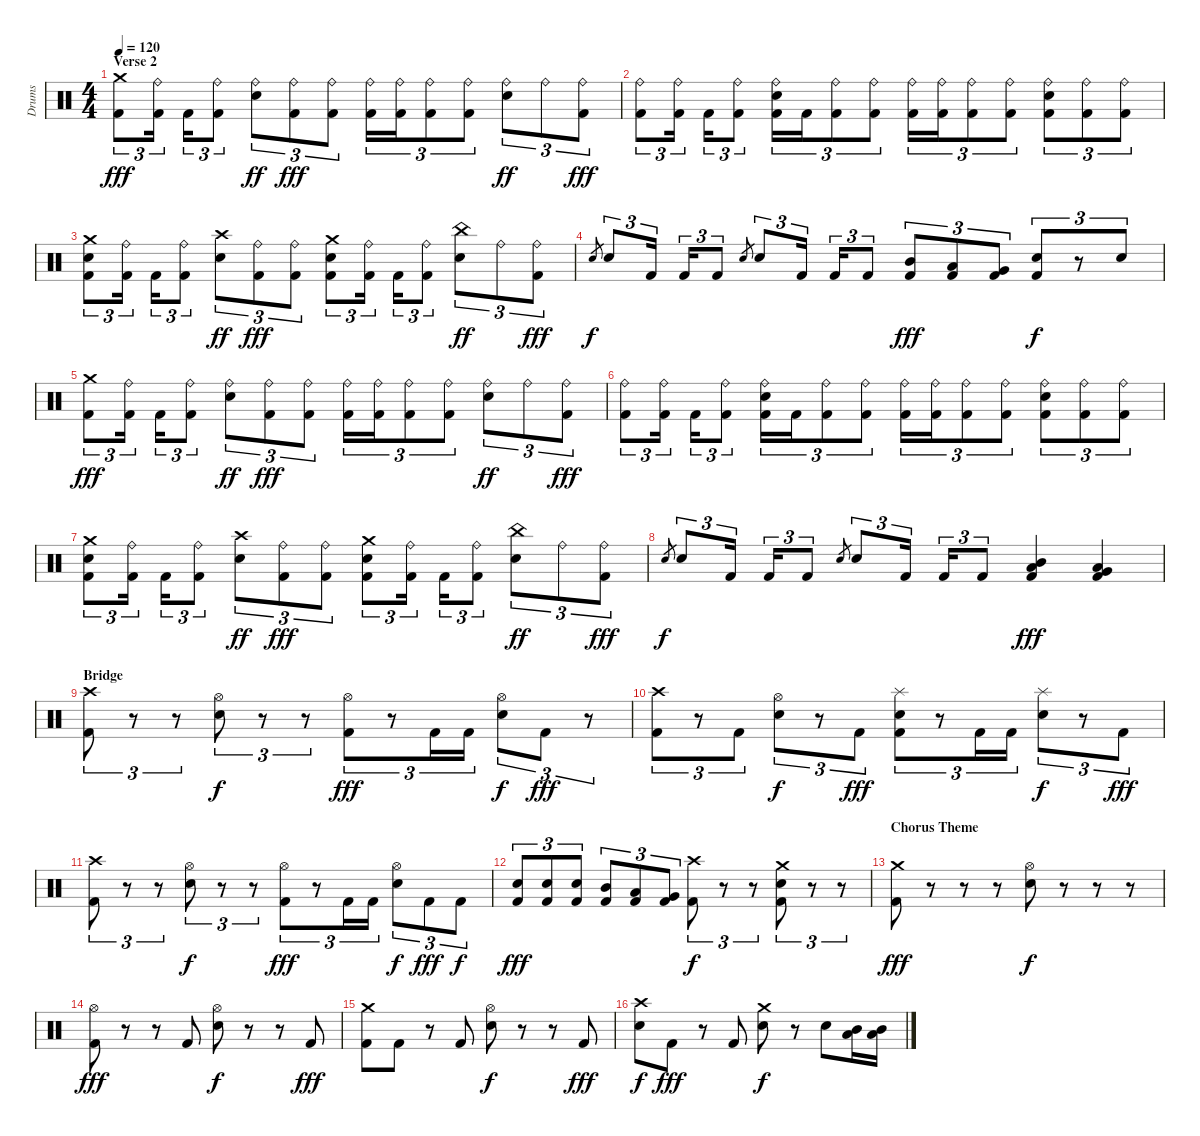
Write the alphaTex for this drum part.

\track ("Drums" "Drums") {instrument percussion}
\staff {score}
\articulation defaults
\ts (4 4)
\section ("" "Verse 2")
\tempo 120
\clef neutral
\ks c
("Crash medium (hit)" "Kick (hit) 2").8{tu (3 2) dy fff} ("Ride (bell)" "Kick (hit) 2").16{tu (3 2)} "Kick (hit) 2".16{tu (3 2)} ("Ride (bell)" "Kick (hit) 2").8{tu (3 2)} ("Ride (bell)" "Snare (hit) 2").8{tu (3 2) dy ff} ("Ride (bell)" "Kick (hit) 2").8{tu (3 2) dy fff} ("Ride (bell)" "Kick (hit) 2").8{tu (3 2)} ("Ride (bell)" "Kick (hit) 2").16{tu (3 2)} ("Ride (bell)" "Kick (hit) 2").16{tu (3 2)} ("Ride (bell)" "Kick (hit) 2").8{tu (3 2)} ("Ride (bell)" "Kick (hit) 2").8{tu (3 2)} ("Ride (bell)" "Snare (hit) 2").8{tu (3 2) dy ff} "Ride (bell)".8{tu (3 2)} ("Ride (bell)" "Kick (hit) 2").8{tu (3 2) dy fff} |
("Ride (bell)" "Kick (hit) 2").8{tu (3 2)} ("Ride (bell)" "Kick (hit) 2").16{tu (3 2)} "Kick (hit) 2".16{tu (3 2)} ("Ride (bell)" "Kick (hit) 2").8{tu (3 2)} ("Ride (bell)" "Snare (hit) 2" "Kick (hit) 2").16{tu (3 2)} "Kick (hit) 2".16{tu (3 2)} ("Ride (bell)" "Kick (hit) 2").8{tu (3 2)} ("Ride (bell)" "Kick (hit) 2").8{tu (3 2)} ("Ride (bell)" "Kick (hit) 2").16{tu (3 2)} ("Ride (bell)" "Kick (hit) 2").16{tu (3 2)} ("Ride (bell)" "Kick (hit) 2").8{tu (3 2)} ("Ride (bell)" "Kick (hit) 2").8{tu (3 2)} ("Ride (bell)" "Snare (hit) 2" "Kick (hit) 2").8{tu (3 2)} ("Ride (bell)" "Kick (hit) 2").8{tu (3 2)} ("Ride (bell)" "Kick (hit) 2").8{tu (3 2)} |
("Crash medium (hit)" "Snare (hit) 2" "Kick (hit) 2").8{tu (3 2)} ("Ride (bell)" "Kick (hit) 2").16{tu (3 2)} "Kick (hit) 2".16{tu (3 2)} ("Ride (bell)" "Kick (hit) 2").8{tu (3 2)} ("Crash high (hit)" "Snare (hit) 2").8{tu (3 2) dy ff} ("Ride (bell)" "Kick (hit) 2").8{tu (3 2) dy fff} ("Ride (bell)" "Kick (hit) 2").8{tu (3 2)} ("Crash medium (hit)" "Snare (hit) 2" "Kick (hit) 2").8{tu (3 2)} ("Ride (bell)" "Kick (hit) 2").16{tu (3 2)} "Kick (hit) 2".16{tu (3 2)} ("Ride (bell)" "Kick (hit) 2").8{tu (3 2)} ("China (hit)" "Snare (hit) 2").8{tu (3 2) dy ff} "Ride (bell)".8{tu (3 2)} ("Ride (bell)" "Kick (hit) 2").8{tu (3 2) dy fff} |
"Snare (hit) 2".8{gr dy f} "Snare (hit) 2".8{tu (3 2)} "Kick (hit) 2".16{tu (3 2)} "Kick (hit) 2".16{tu (3 2)} "Kick (hit) 2".8{tu (3 2)} "Snare (hit) 2".8{gr} "Snare (hit) 2".8{tu (3 2)} "Kick (hit) 2".16{tu (3 2)} "Kick (hit) 2".16{tu (3 2)} "Kick (hit) 2".8{tu (3 2)} ("Mid Tom (hit)" "Kick (hit) 2").8{tu (3 2) dy fff} ("Low Tom (hit)" "Kick (hit) 2").8{tu (3 2)} ("Very Low Tom (hit)" "Kick (hit) 2").8{tu (3 2)} ("Snare (hit) 2" "Kick (hit) 2").8{tu (3 2) dy f} r.8{tu (3 2)} "Snare (hit) 2".8{tu (3 2)} |
("Crash medium (hit)" "Kick (hit) 2").8{tu (3 2) dy fff} ("Ride (bell)" "Kick (hit) 2").16{tu (3 2)} "Kick (hit) 2".16{tu (3 2)} ("Ride (bell)" "Kick (hit) 2").8{tu (3 2)} ("Ride (bell)" "Snare (hit) 2").8{tu (3 2) dy ff} ("Ride (bell)" "Kick (hit) 2").8{tu (3 2) dy fff} ("Ride (bell)" "Kick (hit) 2").8{tu (3 2)} ("Ride (bell)" "Kick (hit) 2").16{tu (3 2)} ("Ride (bell)" "Kick (hit) 2").16{tu (3 2)} ("Ride (bell)" "Kick (hit) 2").8{tu (3 2)} ("Ride (bell)" "Kick (hit) 2").8{tu (3 2)} ("Ride (bell)" "Snare (hit) 2").8{tu (3 2) dy ff} "Ride (bell)".8{tu (3 2)} ("Ride (bell)" "Kick (hit) 2").8{tu (3 2) dy fff} |
("Ride (bell)" "Kick (hit) 2").8{tu (3 2)} ("Ride (bell)" "Kick (hit) 2").16{tu (3 2)} "Kick (hit) 2".16{tu (3 2)} ("Ride (bell)" "Kick (hit) 2").8{tu (3 2)} ("Ride (bell)" "Snare (hit) 2" "Kick (hit) 2").16{tu (3 2)} "Kick (hit) 2".16{tu (3 2)} ("Ride (bell)" "Kick (hit) 2").8{tu (3 2)} ("Ride (bell)" "Kick (hit) 2").8{tu (3 2)} ("Ride (bell)" "Kick (hit) 2").16{tu (3 2)} ("Ride (bell)" "Kick (hit) 2").16{tu (3 2)} ("Ride (bell)" "Kick (hit) 2").8{tu (3 2)} ("Ride (bell)" "Kick (hit) 2").8{tu (3 2)} ("Ride (bell)" "Snare (hit) 2" "Kick (hit) 2").8{tu (3 2)} ("Ride (bell)" "Kick (hit) 2").8{tu (3 2)} ("Ride (bell)" "Kick (hit) 2").8{tu (3 2)} |
("Crash medium (hit)" "Snare (hit) 2" "Kick (hit) 2").8{tu (3 2)} ("Ride (bell)" "Kick (hit) 2").16{tu (3 2)} "Kick (hit) 2".16{tu (3 2)} ("Ride (bell)" "Kick (hit) 2").8{tu (3 2)} ("Crash high (hit)" "Snare (hit) 2").8{tu (3 2) dy ff} ("Ride (bell)" "Kick (hit) 2").8{tu (3 2) dy fff} ("Ride (bell)" "Kick (hit) 2").8{tu (3 2)} ("Crash medium (hit)" "Snare (hit) 2" "Kick (hit) 2").8{tu (3 2)} ("Ride (bell)" "Kick (hit) 2").16{tu (3 2)} "Kick (hit) 2".16{tu (3 2)} ("Ride (bell)" "Kick (hit) 2").8{tu (3 2)} ("China (hit)" "Snare (hit) 2").8{tu (3 2) dy ff} "Ride (bell)".8{tu (3 2)} ("Ride (bell)" "Kick (hit) 2").8{tu (3 2) dy fff} |
"Snare (hit) 2".8{gr dy f} "Snare (hit) 2".8{tu (3 2)} "Kick (hit) 2".16{tu (3 2)} "Kick (hit) 2".16{tu (3 2)} "Kick (hit) 2".8{tu (3 2)} "Snare (hit) 2".8{gr} "Snare (hit) 2".8{tu (3 2)} "Kick (hit) 2".16{tu (3 2)} "Kick (hit) 2".16{tu (3 2)} "Kick (hit) 2".8{tu (3 2)} ("Low Tom (hit)" "Mid Tom (hit)" "Kick (hit) 2").4{dy fff} ("Very Low Tom (hit)" "Low Tom (hit)" "Kick (hit) 2").4 |
\section ("" "Bridge")
("Crash high (hit)" "Kick (hit) 2").8{tu (3 2)} r.8{tu (3 2)} r.8{tu (3 2)} ("Hi-Hat (open)" "Snare (hit) 2").8{tu (3 2) dy f} r.8{tu (3 2)} r.8{tu (3 2)} ("Hi-Hat (open)" "Kick (hit) 2").8{tu (3 2) dy fff} r.8{tu (3 2)} "Kick (hit) 2".16{tu (3 2)} "Kick (hit) 2".16{tu (3 2)} ("Hi-Hat (open)" "Snare (hit) 2").8{tu (3 2) dy f} "Kick (hit) 2".8{tu (3 2) dy fff} r.8{tu (3 2)} |
("Crash high (hit)" "Kick (hit) 2").8{tu (3 2)} r.8{tu (3 2)} "Kick (hit) 2".8{tu (3 2)} ("Hi-Hat (open)" "Snare (hit) 2").8{tu (3 2) dy f} r.8{tu (3 2)} "Kick (hit) 2".8{tu (3 2) dy fff} ("Splash (hit)" "Snare (hit) 2" "Kick (hit) 2").8{tu (3 2)} r.8{tu (3 2)} "Kick (hit) 2".16{tu (3 2)} "Kick (hit) 2".16{tu (3 2)} ("Splash (hit)" "Snare (hit) 2").8{tu (3 2) dy f} r.8{tu (3 2)} "Kick (hit) 2".8{tu (3 2) dy fff} |
("Crash high (hit)" "Kick (hit) 2").8{tu (3 2)} r.8{tu (3 2)} r.8{tu (3 2)} ("Hi-Hat (open)" "Snare (hit) 2").8{tu (3 2) dy f} r.8{tu (3 2)} r.8{tu (3 2)} ("Hi-Hat (open)" "Kick (hit) 2").8{tu (3 2) dy fff} r.8{tu (3 2)} "Kick (hit) 2".16{tu (3 2)} "Kick (hit) 2".16{tu (3 2)} ("Hi-Hat (open)" "Snare (hit) 2").8{tu (3 2) dy f} "Kick (hit) 2".8{tu (3 2) dy fff} "Kick (hit) 2".8{tu (3 2) dy f} |
("Snare (hit) 2" "Kick (hit) 2").8{tu (3 2) dy fff} ("Snare (hit) 2" "Kick (hit) 2").8{tu (3 2)} ("Snare (hit) 2" "Kick (hit) 2").8{tu (3 2)} ("Mid Tom (hit)" "Kick (hit) 2").8{tu (3 2)} ("Low Tom (hit)" "Kick (hit) 2").8{tu (3 2)} ("Very Low Tom (hit)" "Kick (hit) 2").8{tu (3 2)} ("Crash high (hit)" "Kick (hit) 2").8{tu (3 2) dy f} r.8{tu (3 2)} r.8{tu (3 2)} ("Crash medium (hit)" "Snare (hit) 2" "Kick (hit) 2").8{tu (3 2)} r.8{tu (3 2)} r.8{tu (3 2)} |
\section ("" "Chorus Theme")
("Crash medium (hit)" "Kick (hit) 2").8{dy fff} r.8 r.8 r.8 ("Hi-Hat (open)" "Snare (hit) 2").8{dy f} r.8 r.8 r.8 |
("Hi-Hat (open)" "Kick (hit) 2").8{dy fff} r.8 r.8 "Kick (hit) 2".8 ("Hi-Hat (open)" "Snare (hit) 2").8{dy f} r.8 r.8 "Kick (hit) 2".8{dy fff} |
("Crash medium (hit)" "Kick (hit) 2").8 "Kick (hit) 2".8 r.8 "Kick (hit) 2".8 ("Hi-Hat (open)" "Snare (hit) 2").8{dy f} r.8 r.8 "Kick (hit) 2".8{dy fff} |
("Crash high (hit)" "Snare (hit) 2").8{dy f} "Kick (hit) 2".8{dy fff} r.8 "Kick (hit) 2".8 ("Crash medium (hit)" "Snare (hit) 2").8{dy f} r.8 "Snare (hit) 2".8 ("Mid Tom (hit)" "Low Tom (hit)").16 ("Mid Tom (hit)" "Low Tom (hit)").16
